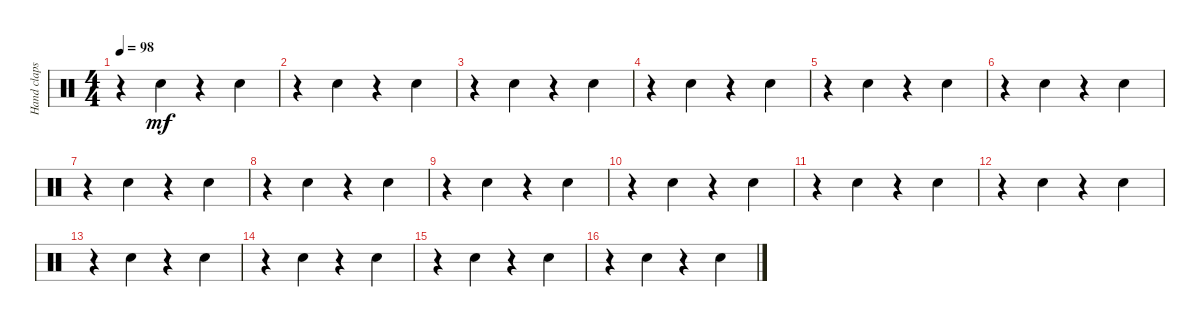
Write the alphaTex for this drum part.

\track ("Hand claps" "Hand claps") {instrument percussion}
\staff {score}
\articulation defaults
\ts (4 4)
\tempo 98
\clef neutral
\ks c
r.4{dy mf} "Hand Clap (hit)".4 r.4 "Hand Clap (hit)".4 |
r.4 "Hand Clap (hit)".4 r.4 "Hand Clap (hit)".4 |
r.4 "Hand Clap (hit)".4 r.4 "Hand Clap (hit)".4 |
r.4 "Hand Clap (hit)".4 r.4 "Hand Clap (hit)".4 |
r.4 "Hand Clap (hit)".4 r.4 "Hand Clap (hit)".4 |
r.4 "Hand Clap (hit)".4 r.4 "Hand Clap (hit)".4 |
r.4 "Hand Clap (hit)".4 r.4 "Hand Clap (hit)".4 |
r.4 "Hand Clap (hit)".4 r.4 "Hand Clap (hit)".4 |
r.4 "Hand Clap (hit)".4 r.4 "Hand Clap (hit)".4 |
r.4 "Hand Clap (hit)".4 r.4 "Hand Clap (hit)".4 |
r.4 "Hand Clap (hit)".4 r.4 "Hand Clap (hit)".4 |
r.4 "Hand Clap (hit)".4 r.4 "Hand Clap (hit)".4 |
r.4 "Hand Clap (hit)".4 r.4 "Hand Clap (hit)".4 |
r.4 "Hand Clap (hit)".4 r.4 "Hand Clap (hit)".4 |
r.4 "Hand Clap (hit)".4 r.4 "Hand Clap (hit)".4 |
r.4 "Hand Clap (hit)".4 r.4 "Hand Clap (hit)".4
